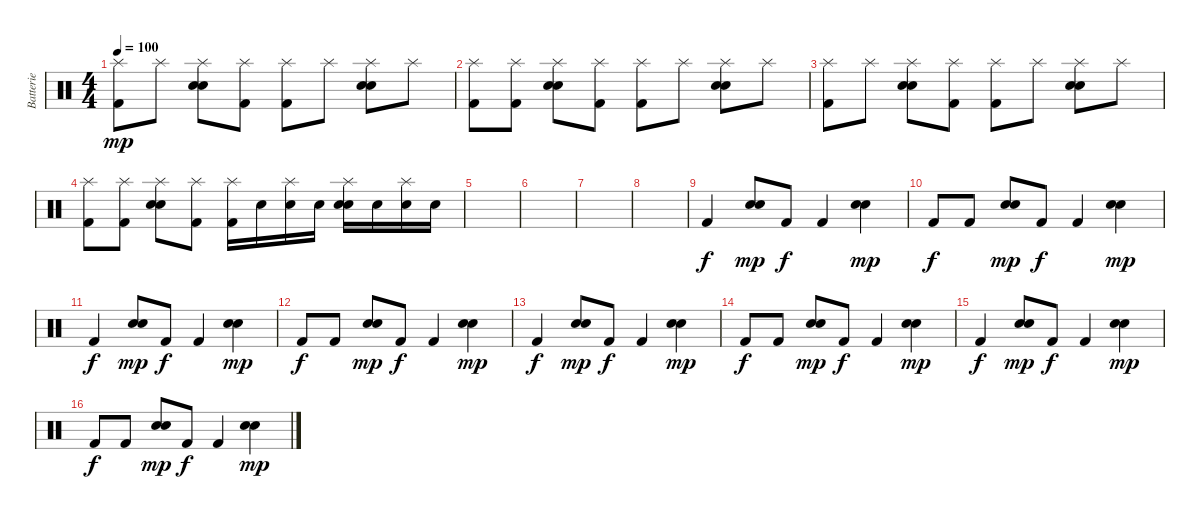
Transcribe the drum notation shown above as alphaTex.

\track ("Batterie" "Batterie") {instrument percussion}
\staff {score}
\articulation defaults
\ts (4 4)
\tempo 100
\clef neutral
\ks c
("Kick (hit) 2" "Splash (hit)").8{dy mp} "Splash (hit)".8 ("Hand Clap (hit)" "Electric Snare (hit)" "Splash (hit)").8 ("Kick (hit) 2" "Splash (hit)").8 ("Kick (hit) 2" "Splash (hit)").8 "Splash (hit)".8 ("Hand Clap (hit)" "Electric Snare (hit)" "Splash (hit)").8 "Splash (hit)".8 |
("Kick (hit) 2" "Splash (hit)").8 ("Kick (hit) 2" "Splash (hit)").8 ("Hand Clap (hit)" "Electric Snare (hit)" "Splash (hit)").8 ("Kick (hit) 2" "Splash (hit)").8 ("Kick (hit) 2" "Splash (hit)").8 "Splash (hit)".8 ("Hand Clap (hit)" "Electric Snare (hit)" "Splash (hit)").8 "Splash (hit)".8 |
("Kick (hit) 2" "Splash (hit)").8 "Splash (hit)".8 ("Hand Clap (hit)" "Electric Snare (hit)" "Splash (hit)").8 ("Kick (hit) 2" "Splash (hit)").8 ("Kick (hit) 2" "Splash (hit)").8 "Splash (hit)".8 ("Hand Clap (hit)" "Electric Snare (hit)" "Splash (hit)").8 "Splash (hit)".8 |
("Kick (hit) 2" "Splash (hit)").8 ("Kick (hit) 2" "Splash (hit)").8 ("Hand Clap (hit)" "Electric Snare (hit)" "Splash (hit)").8 ("Kick (hit) 2" "Splash (hit)").8 ("Kick (hit) 2" "Splash (hit)").16 "Electric Snare (hit)".16 ("Electric Snare (hit)" "Splash (hit)").16 "Electric Snare (hit)".16 ("Hand Clap (hit)" "Electric Snare (hit)" "Splash (hit)").16 "Electric Snare (hit)".16 ("Electric Snare (hit)" "Splash (hit)").16 "Electric Snare (hit)".16 |
|
|
|
|
"Kick (hit) 2".4{dy f} ("Hand Clap (hit)" "Snare (hit) 2").8{dy mp} "Kick (hit) 2".8{dy f} "Kick (hit) 2".4 ("Hand Clap (hit)" "Snare (hit) 2").4{dy mp} |
"Kick (hit) 2".8{dy f} "Kick (hit) 2".8 ("Hand Clap (hit)" "Snare (hit) 2").8{dy mp} "Kick (hit) 2".8{dy f} "Kick (hit) 2".4 ("Hand Clap (hit)" "Snare (hit) 2").4{dy mp} |
"Kick (hit) 2".4{dy f} ("Hand Clap (hit)" "Snare (hit) 2").8{dy mp} "Kick (hit) 2".8{dy f} "Kick (hit) 2".4 ("Hand Clap (hit)" "Snare (hit) 2").4{dy mp} |
"Kick (hit) 2".8{dy f} "Kick (hit) 2".8 ("Hand Clap (hit)" "Snare (hit) 2").8{dy mp} "Kick (hit) 2".8{dy f} "Kick (hit) 2".4 ("Hand Clap (hit)" "Snare (hit) 2").4{dy mp} |
"Kick (hit) 2".4{dy f} ("Hand Clap (hit)" "Snare (hit) 2").8{dy mp} "Kick (hit) 2".8{dy f} "Kick (hit) 2".4 ("Hand Clap (hit)" "Snare (hit) 2").4{dy mp} |
"Kick (hit) 2".8{dy f} "Kick (hit) 2".8 ("Hand Clap (hit)" "Snare (hit) 2").8{dy mp} "Kick (hit) 2".8{dy f} "Kick (hit) 2".4 ("Hand Clap (hit)" "Snare (hit) 2").4{dy mp} |
"Kick (hit) 2".4{dy f} ("Hand Clap (hit)" "Snare (hit) 2").8{dy mp} "Kick (hit) 2".8{dy f} "Kick (hit) 2".4 ("Hand Clap (hit)" "Snare (hit) 2").4{dy mp} |
"Kick (hit) 2".8{dy f} "Kick (hit) 2".8 ("Hand Clap (hit)" "Snare (hit) 2").8{dy mp} "Kick (hit) 2".8{dy f} "Kick (hit) 2".4 ("Hand Clap (hit)" "Snare (hit) 2").4{dy mp}
